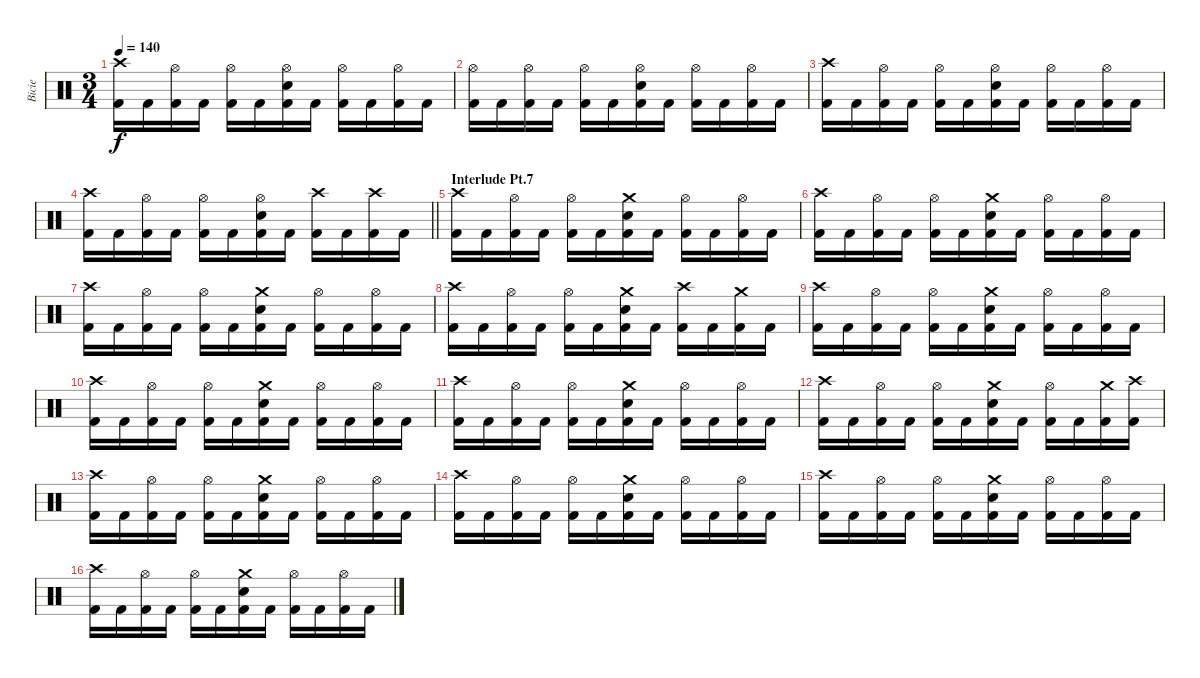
\track ("Bicie" "Bicie") {instrument percussion}
\staff {score}
\articulation defaults
\ts (3 4)
\tempo 140
\clef neutral
\ks c
("Crash high (hit)" "Kick (hit) 2").16{dy f} "Kick (hit) 2".16 ("Hi-Hat (open)" "Kick (hit) 2").16 "Kick (hit) 2".16 ("Hi-Hat (open)" "Kick (hit) 2").16 "Kick (hit) 2".16 ("Hi-Hat (open)" "Snare (hit) 2" "Kick (hit) 2").16 "Kick (hit) 2".16 ("Hi-Hat (open)" "Kick (hit) 2").16 "Kick (hit) 2".16 ("Hi-Hat (open)" "Kick (hit) 2").16 "Kick (hit) 2".16 |
("Hi-Hat (open)" "Kick (hit) 2").16 "Kick (hit) 2".16 ("Hi-Hat (open)" "Kick (hit) 2").16 "Kick (hit) 2".16 ("Hi-Hat (open)" "Kick (hit) 2").16 "Kick (hit) 2".16 ("Hi-Hat (open)" "Snare (hit) 2" "Kick (hit) 2").16 "Kick (hit) 2".16 ("Hi-Hat (open)" "Kick (hit) 2").16 "Kick (hit) 2".16 ("Hi-Hat (open)" "Kick (hit) 2").16 "Kick (hit) 2".16 |
("Crash high (hit)" "Kick (hit) 2").16 "Kick (hit) 2".16 ("Hi-Hat (open)" "Kick (hit) 2").16 "Kick (hit) 2".16 ("Hi-Hat (open)" "Kick (hit) 2").16 "Kick (hit) 2".16 ("Hi-Hat (open)" "Snare (hit) 2" "Kick (hit) 2").16 "Kick (hit) 2".16 ("Hi-Hat (open)" "Kick (hit) 2").16 "Kick (hit) 2".16 ("Hi-Hat (open)" "Kick (hit) 2").16 "Kick (hit) 2".16 |
\barLineRight lightlight
("Crash high (hit)" "Kick (hit) 2").16 "Kick (hit) 2".16 ("Hi-Hat (open)" "Kick (hit) 2").16 "Kick (hit) 2".16 ("Hi-Hat (open)" "Kick (hit) 2").16 "Kick (hit) 2".16 ("Hi-Hat (open)" "Snare (hit) 2" "Kick (hit) 2").16 "Kick (hit) 2".16 ("Crash high (hit)" "Kick (hit) 2").16 "Kick (hit) 2".16 ("Crash high (hit)" "Kick (hit) 2").16 "Kick (hit) 2".16 |
\section ("" "Interlude Pt.7")
("Crash high (hit)" "Kick (hit) 2").16 "Kick (hit) 2".16 ("Hi-Hat (open)" "Kick (hit) 2").16 "Kick (hit) 2".16 ("Hi-Hat (open)" "Kick (hit) 2").16 "Kick (hit) 2".16 ("Crash medium (hit)" "Snare (hit) 2" "Kick (hit) 2").16 "Kick (hit) 2".16 ("Hi-Hat (open)" "Kick (hit) 2").16 "Kick (hit) 2".16 ("Hi-Hat (open)" "Kick (hit) 2").16 "Kick (hit) 2".16 |
("Crash high (hit)" "Kick (hit) 2").16 "Kick (hit) 2".16 ("Hi-Hat (open)" "Kick (hit) 2").16 "Kick (hit) 2".16 ("Hi-Hat (open)" "Kick (hit) 2").16 "Kick (hit) 2".16 ("Crash medium (hit)" "Snare (hit) 2" "Kick (hit) 2").16 "Kick (hit) 2".16 ("Hi-Hat (open)" "Kick (hit) 2").16 "Kick (hit) 2".16 ("Hi-Hat (open)" "Kick (hit) 2").16 "Kick (hit) 2".16 |
("Crash high (hit)" "Kick (hit) 2").16 "Kick (hit) 2".16 ("Hi-Hat (open)" "Kick (hit) 2").16 "Kick (hit) 2".16 ("Hi-Hat (open)" "Kick (hit) 2").16 "Kick (hit) 2".16 ("Crash medium (hit)" "Snare (hit) 2" "Kick (hit) 2").16 "Kick (hit) 2".16 ("Hi-Hat (open)" "Kick (hit) 2").16 "Kick (hit) 2".16 ("Hi-Hat (open)" "Kick (hit) 2").16 "Kick (hit) 2".16 |
("Crash high (hit)" "Kick (hit) 2").16 "Kick (hit) 2".16 ("Hi-Hat (open)" "Kick (hit) 2").16 "Kick (hit) 2".16 ("Hi-Hat (open)" "Kick (hit) 2").16 "Kick (hit) 2".16 ("Crash medium (hit)" "Snare (hit) 2" "Kick (hit) 2").16 "Kick (hit) 2".16 ("Crash high (hit)" "Kick (hit) 2").16 "Kick (hit) 2".16 ("Crash medium (hit)" "Kick (hit) 2").16 "Kick (hit) 2".16 |
("Crash high (hit)" "Kick (hit) 2").16 "Kick (hit) 2".16 ("Hi-Hat (open)" "Kick (hit) 2").16 "Kick (hit) 2".16 ("Hi-Hat (open)" "Kick (hit) 2").16 "Kick (hit) 2".16 ("Crash medium (hit)" "Snare (hit) 2" "Kick (hit) 2").16 "Kick (hit) 2".16 ("Hi-Hat (open)" "Kick (hit) 2").16 "Kick (hit) 2".16 ("Hi-Hat (open)" "Kick (hit) 2").16 "Kick (hit) 2".16 |
("Crash high (hit)" "Kick (hit) 2").16 "Kick (hit) 2".16 ("Hi-Hat (open)" "Kick (hit) 2").16 "Kick (hit) 2".16 ("Hi-Hat (open)" "Kick (hit) 2").16 "Kick (hit) 2".16 ("Crash medium (hit)" "Snare (hit) 2" "Kick (hit) 2").16 "Kick (hit) 2".16 ("Hi-Hat (open)" "Kick (hit) 2").16 "Kick (hit) 2".16 ("Hi-Hat (open)" "Kick (hit) 2").16 "Kick (hit) 2".16 |
("Crash high (hit)" "Kick (hit) 2").16 "Kick (hit) 2".16 ("Hi-Hat (open)" "Kick (hit) 2").16 "Kick (hit) 2".16 ("Hi-Hat (open)" "Kick (hit) 2").16 "Kick (hit) 2".16 ("Crash medium (hit)" "Snare (hit) 2" "Kick (hit) 2").16 "Kick (hit) 2".16 ("Hi-Hat (open)" "Kick (hit) 2").16 "Kick (hit) 2".16 ("Hi-Hat (open)" "Kick (hit) 2").16 "Kick (hit) 2".16 |
("Crash high (hit)" "Kick (hit) 2").16 "Kick (hit) 2".16 ("Hi-Hat (open)" "Kick (hit) 2").16 "Kick (hit) 2".16 ("Hi-Hat (open)" "Kick (hit) 2").16 "Kick (hit) 2".16 ("Crash medium (hit)" "Snare (hit) 2" "Kick (hit) 2").16 "Kick (hit) 2".16 ("Hi-Hat (open)" "Kick (hit) 2").16 "Kick (hit) 2".16 ("Crash medium (hit)" "Kick (hit) 2").16 ("Crash high (hit)" "Kick (hit) 2").16 |
("Crash high (hit)" "Kick (hit) 2").16 "Kick (hit) 2".16 ("Hi-Hat (open)" "Kick (hit) 2").16 "Kick (hit) 2".16 ("Hi-Hat (open)" "Kick (hit) 2").16 "Kick (hit) 2".16 ("Crash medium (hit)" "Snare (hit) 2" "Kick (hit) 2").16 "Kick (hit) 2".16 ("Hi-Hat (open)" "Kick (hit) 2").16 "Kick (hit) 2".16 ("Hi-Hat (open)" "Kick (hit) 2").16 "Kick (hit) 2".16 |
("Crash high (hit)" "Kick (hit) 2").16 "Kick (hit) 2".16 ("Hi-Hat (open)" "Kick (hit) 2").16 "Kick (hit) 2".16 ("Hi-Hat (open)" "Kick (hit) 2").16 "Kick (hit) 2".16 ("Crash medium (hit)" "Snare (hit) 2" "Kick (hit) 2").16 "Kick (hit) 2".16 ("Hi-Hat (open)" "Kick (hit) 2").16 "Kick (hit) 2".16 ("Hi-Hat (open)" "Kick (hit) 2").16 "Kick (hit) 2".16 |
("Crash high (hit)" "Kick (hit) 2").16 "Kick (hit) 2".16 ("Hi-Hat (open)" "Kick (hit) 2").16 "Kick (hit) 2".16 ("Hi-Hat (open)" "Kick (hit) 2").16 "Kick (hit) 2".16 ("Crash medium (hit)" "Snare (hit) 2" "Kick (hit) 2").16 "Kick (hit) 2".16 ("Hi-Hat (open)" "Kick (hit) 2").16 "Kick (hit) 2".16 ("Hi-Hat (open)" "Kick (hit) 2").16 "Kick (hit) 2".16 |
("Crash high (hit)" "Kick (hit) 2").16 "Kick (hit) 2".16 ("Hi-Hat (open)" "Kick (hit) 2").16 "Kick (hit) 2".16 ("Hi-Hat (open)" "Kick (hit) 2").16 "Kick (hit) 2".16 ("Crash medium (hit)" "Snare (hit) 2" "Kick (hit) 2").16 "Kick (hit) 2".16 ("Hi-Hat (open)" "Kick (hit) 2").16 "Kick (hit) 2".16 ("Hi-Hat (open)" "Kick (hit) 2").16 "Kick (hit) 2".16
